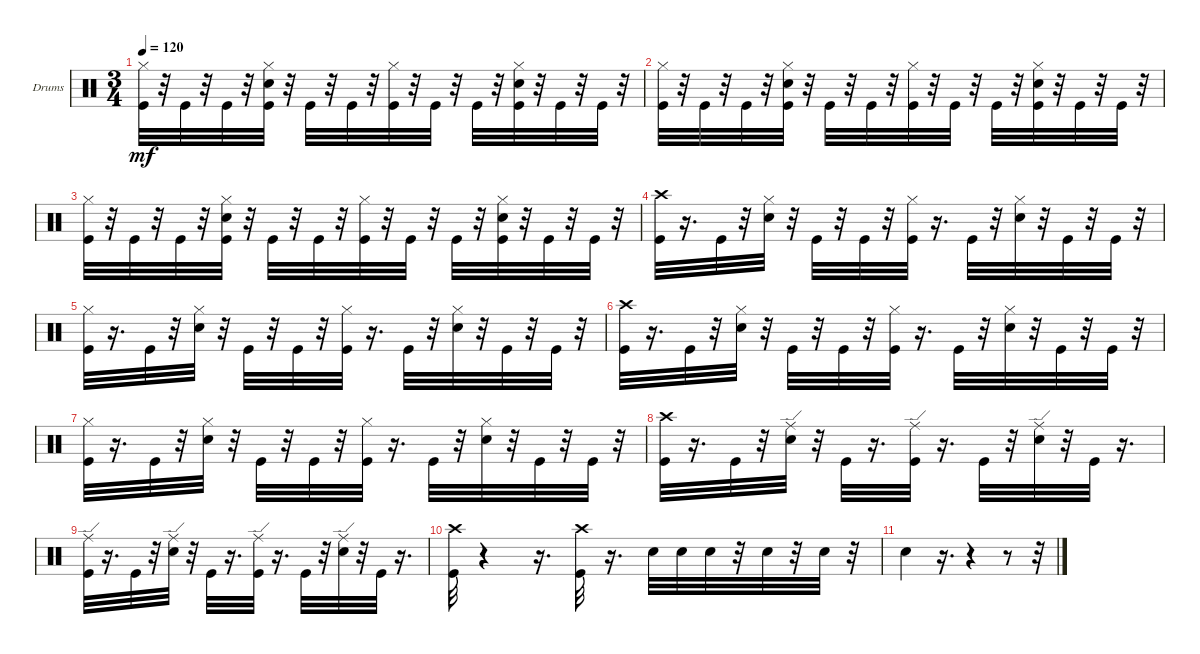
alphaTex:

\bracketExtendMode groupsimilarinstruments
\firstSystemTrackNameOrientation horizontal
\otherSystemsTrackNameOrientation horizontal
\track ("" "Drums") {instrument percussion}
\staff {score}
\articulation defaults
\ts (3 4)
\tempo 120
\clef neutral
\ks c
("Hi-Hat (closed)" "Kick (hit)").32{dy mf} r.32 "Kick (hit)".32 r.32 "Kick (hit)".32 r.32 ("Hi-Hat (closed)" "Snare (hit) 2" "Kick (hit)").32 r.32 "Kick (hit)".32 r.32 "Kick (hit)".32 r.32 ("Hi-Hat (closed)" "Kick (hit)").32 r.32 "Kick (hit)".32 r.32 "Kick (hit)".32 r.32 ("Hi-Hat (closed)" "Snare (hit) 2" "Kick (hit)").32 r.32 "Kick (hit)".32 r.32 "Kick (hit)".32 r.32 |
("Hi-Hat (closed)" "Kick (hit)").32 r.32 "Kick (hit)".32 r.32 "Kick (hit)".32 r.32 ("Hi-Hat (closed)" "Snare (hit) 2" "Kick (hit)").32 r.32 "Kick (hit)".32 r.32 "Kick (hit)".32 r.32 ("Hi-Hat (closed)" "Kick (hit)").32 r.32 "Kick (hit)".32 r.32 "Kick (hit)".32 r.32 ("Hi-Hat (closed)" "Snare (hit) 2" "Kick (hit)").32 r.32 "Kick (hit)".32 r.32 "Kick (hit)".32 r.32 |
("Hi-Hat (closed)" "Kick (hit)").32 r.32 "Kick (hit)".32 r.32 "Kick (hit)".32 r.32 ("Hi-Hat (closed)" "Snare (hit) 2" "Kick (hit)").32 r.32 "Kick (hit)".32 r.32 "Kick (hit)".32 r.32 ("Hi-Hat (closed)" "Kick (hit)").32 r.32 "Kick (hit)".32 r.32 "Kick (hit)".32 r.32 ("Hi-Hat (closed)" "Snare (hit) 2" "Kick (hit)").32 r.32 "Kick (hit)".32 r.32 "Kick (hit)".32 r.32 |
("Crash high (hit)" "Kick (hit)").32 r.16{d} "Kick (hit)".32 r.32 ("Hi-Hat (closed)" "Snare (hit) 2").32 r.32 "Kick (hit)".32 r.32 "Kick (hit)".32 r.32 ("Hi-Hat (closed)" "Kick (hit)").32 r.16{d} "Kick (hit)".32 r.32 ("Hi-Hat (closed)" "Snare (hit) 2").32 r.32 "Kick (hit)".32 r.32 "Kick (hit)".32 r.32 |
("Hi-Hat (closed)" "Kick (hit)").32 r.16{d} "Kick (hit)".32 r.32 ("Hi-Hat (closed)" "Snare (hit) 2").32 r.32 "Kick (hit)".32 r.32 "Kick (hit)".32 r.32 ("Hi-Hat (closed)" "Kick (hit)").32 r.16{d} "Kick (hit)".32 r.32 ("Hi-Hat (closed)" "Snare (hit) 2").32 r.32 "Kick (hit)".32 r.32 "Kick (hit)".32 r.32 |
("Crash high (hit)" "Kick (hit)").32 r.16{d} "Kick (hit)".32 r.32 ("Hi-Hat (closed)" "Snare (hit) 2").32 r.32 "Kick (hit)".32 r.32 "Kick (hit)".32 r.32 ("Hi-Hat (closed)" "Kick (hit)").32 r.16{d} "Kick (hit)".32 r.32 ("Hi-Hat (closed)" "Snare (hit) 2").32 r.32 "Kick (hit)".32 r.32 "Kick (hit)".32 r.32 |
("Hi-Hat (closed)" "Kick (hit)").32 r.16{d} "Kick (hit)".32 r.32 ("Hi-Hat (closed)" "Snare (hit) 2").32 r.32 "Kick (hit)".32 r.32 "Kick (hit)".32 r.32 ("Hi-Hat (closed)" "Kick (hit)").32 r.16{d} "Kick (hit)".32 r.32 ("Hi-Hat (closed)" "Snare (hit) 2").32 r.32 "Kick (hit)".32 r.32 "Kick (hit)".32 r.32 |
("Crash high (hit)" "Kick (hit)").32 r.16{d} "Kick (hit)".32 r.32 ("Snare (hit) 2" "Ride (edge)").32 r.32 "Kick (hit)".32 r.16{d} ("Kick (hit)" "Ride (edge)").32 r.16{d} "Kick (hit)".32 r.32 ("Snare (hit) 2" "Ride (edge)").32 r.32 "Kick (hit)".32 r.16{d} |
("Ride (edge)" "Kick (hit)").32 r.16{d} "Kick (hit)".32 r.32 ("Snare (hit) 2" "Ride (edge)").32 r.32 "Kick (hit)".32 r.16{d} ("Kick (hit)" "Ride (edge)").32 r.16{d} "Kick (hit)".32 r.32 ("Snare (hit) 2" "Ride (edge)").32 r.32 "Kick (hit)".32 r.16{d} |
("Crash high (hit)" "Kick (hit)").32 r.4 r.16{d} ("Crash high (hit)" "Kick (hit)").32 r.16{d} "Snare (hit) 2".32 "Snare (hit) 2".32 "Snare (hit) 2".32 r.32 "Snare (hit) 2".32 r.32 "Snare (hit) 2".32 r.32 |
"Snare (hit) 2".4 r.16{d} r.4 r.8 r.32
